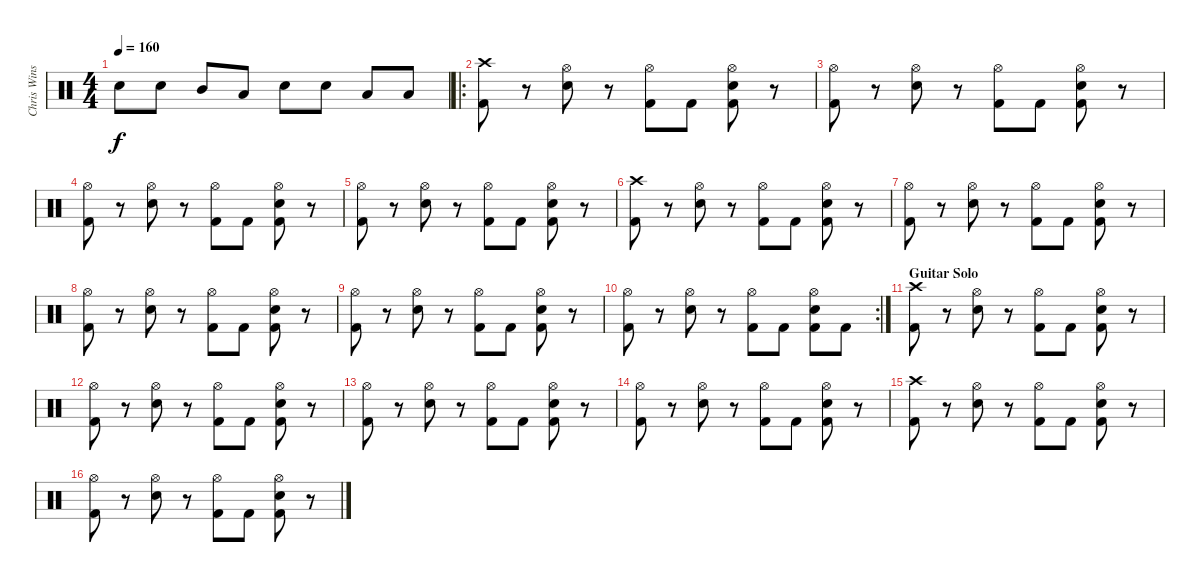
\track ("Chris Winship (Drums)" "Chris Wins") {instrument percussion}
\staff {score}
\articulation defaults
\ts (4 4)
\tempo 160
\clef neutral
\ks c "Electric Snare (hit)".8{dy f} "Electric Snare (hit)".8 "Mid Tom (hit)".8 "Low Tom (hit)".8 "Snare (hit) 2".8 "Snare (hit) 2".8 "Low Tom (hit)".8 "Low Floor Tom (hit)".8
|
\ro
("Crash high (hit)" "Kick (hit) 2").8 r.8 ("Hi-Hat (open)" "Snare (hit) 2").8 r.8 ("Hi-Hat (open)" "Kick (hit) 2").8 "Kick (hit) 2".8 ("Hi-Hat (open)" "Kick (hit) 2" "Snare (hit) 2").8 r.8 |
("Hi-Hat (open)" "Kick (hit) 2").8 r.8 ("Hi-Hat (open)" "Snare (hit) 2").8 r.8 ("Hi-Hat (open)" "Kick (hit) 2").8 "Kick (hit) 2".8 ("Hi-Hat (open)" "Kick (hit) 2" "Snare (hit) 2").8 r.8 |
("Hi-Hat (open)" "Kick (hit) 2").8 r.8 ("Hi-Hat (open)" "Snare (hit) 2").8 r.8 ("Hi-Hat (open)" "Kick (hit) 2").8 "Kick (hit) 2".8 ("Hi-Hat (open)" "Kick (hit) 2" "Snare (hit) 2").8 r.8 |
("Hi-Hat (open)" "Kick (hit) 2").8 r.8 ("Hi-Hat (open)" "Snare (hit) 2").8 r.8 ("Hi-Hat (open)" "Kick (hit) 2").8 "Kick (hit) 2".8 ("Hi-Hat (open)" "Kick (hit) 2" "Snare (hit) 2").8 r.8 |
("Crash high (hit)" "Kick (hit) 2").8 r.8 ("Hi-Hat (open)" "Snare (hit) 2").8 r.8 ("Hi-Hat (open)" "Kick (hit) 2").8 "Kick (hit) 2".8 ("Hi-Hat (open)" "Kick (hit) 2" "Snare (hit) 2").8 r.8 |
("Hi-Hat (open)" "Kick (hit) 2").8 r.8 ("Hi-Hat (open)" "Snare (hit) 2").8 r.8 ("Hi-Hat (open)" "Kick (hit) 2").8 "Kick (hit) 2".8 ("Hi-Hat (open)" "Kick (hit) 2" "Snare (hit) 2").8 r.8 |
("Hi-Hat (open)" "Kick (hit) 2").8 r.8 ("Hi-Hat (open)" "Snare (hit) 2").8 r.8 ("Hi-Hat (open)" "Kick (hit) 2").8 "Kick (hit) 2".8 ("Hi-Hat (open)" "Kick (hit) 2" "Snare (hit) 2").8 r.8 |
("Hi-Hat (open)" "Kick (hit) 2").8 r.8 ("Hi-Hat (open)" "Snare (hit) 2").8 r.8 ("Hi-Hat (open)" "Kick (hit) 2").8 "Kick (hit) 2".8 ("Hi-Hat (open)" "Kick (hit) 2" "Snare (hit) 2").8 r.8 |
\rc 2
("Hi-Hat (open)" "Kick (hit) 2").8 r.8 ("Hi-Hat (open)" "Snare (hit) 2").8 r.8 ("Hi-Hat (open)" "Kick (hit) 2").8 "Kick (hit) 2".8 ("Hi-Hat (open)" "Kick (hit) 2" "Snare (hit) 2").8 "Kick (hit) 2".8 |
\section ("" "Guitar Solo")
("Crash high (hit)" "Kick (hit) 2").8 r.8 ("Hi-Hat (open)" "Snare (hit) 2").8 r.8 ("Hi-Hat (open)" "Kick (hit) 2").8 "Kick (hit) 2".8 ("Hi-Hat (open)" "Kick (hit) 2" "Snare (hit) 2").8 r.8 |
("Hi-Hat (open)" "Kick (hit) 2").8 r.8 ("Hi-Hat (open)" "Snare (hit) 2").8 r.8 ("Hi-Hat (open)" "Kick (hit) 2").8 "Kick (hit) 2".8 ("Hi-Hat (open)" "Kick (hit) 2" "Snare (hit) 2").8 r.8 |
("Hi-Hat (open)" "Kick (hit) 2").8 r.8 ("Hi-Hat (open)" "Snare (hit) 2").8 r.8 ("Hi-Hat (open)" "Kick (hit) 2").8 "Kick (hit) 2".8 ("Hi-Hat (open)" "Kick (hit) 2" "Snare (hit) 2").8 r.8 |
("Hi-Hat (open)" "Kick (hit) 2").8 r.8 ("Hi-Hat (open)" "Snare (hit) 2").8 r.8 ("Hi-Hat (open)" "Kick (hit) 2").8 "Kick (hit) 2".8 ("Hi-Hat (open)" "Kick (hit) 2" "Snare (hit) 2").8 r.8 |
("Crash high (hit)" "Kick (hit) 2").8 r.8 ("Hi-Hat (open)" "Snare (hit) 2").8 r.8 ("Hi-Hat (open)" "Kick (hit) 2").8 "Kick (hit) 2".8 ("Hi-Hat (open)" "Kick (hit) 2" "Snare (hit) 2").8 r.8 |
("Hi-Hat (open)" "Kick (hit) 2").8 r.8 ("Hi-Hat (open)" "Snare (hit) 2").8 r.8 ("Hi-Hat (open)" "Kick (hit) 2").8 "Kick (hit) 2".8 ("Hi-Hat (open)" "Kick (hit) 2" "Snare (hit) 2").8 r.8
